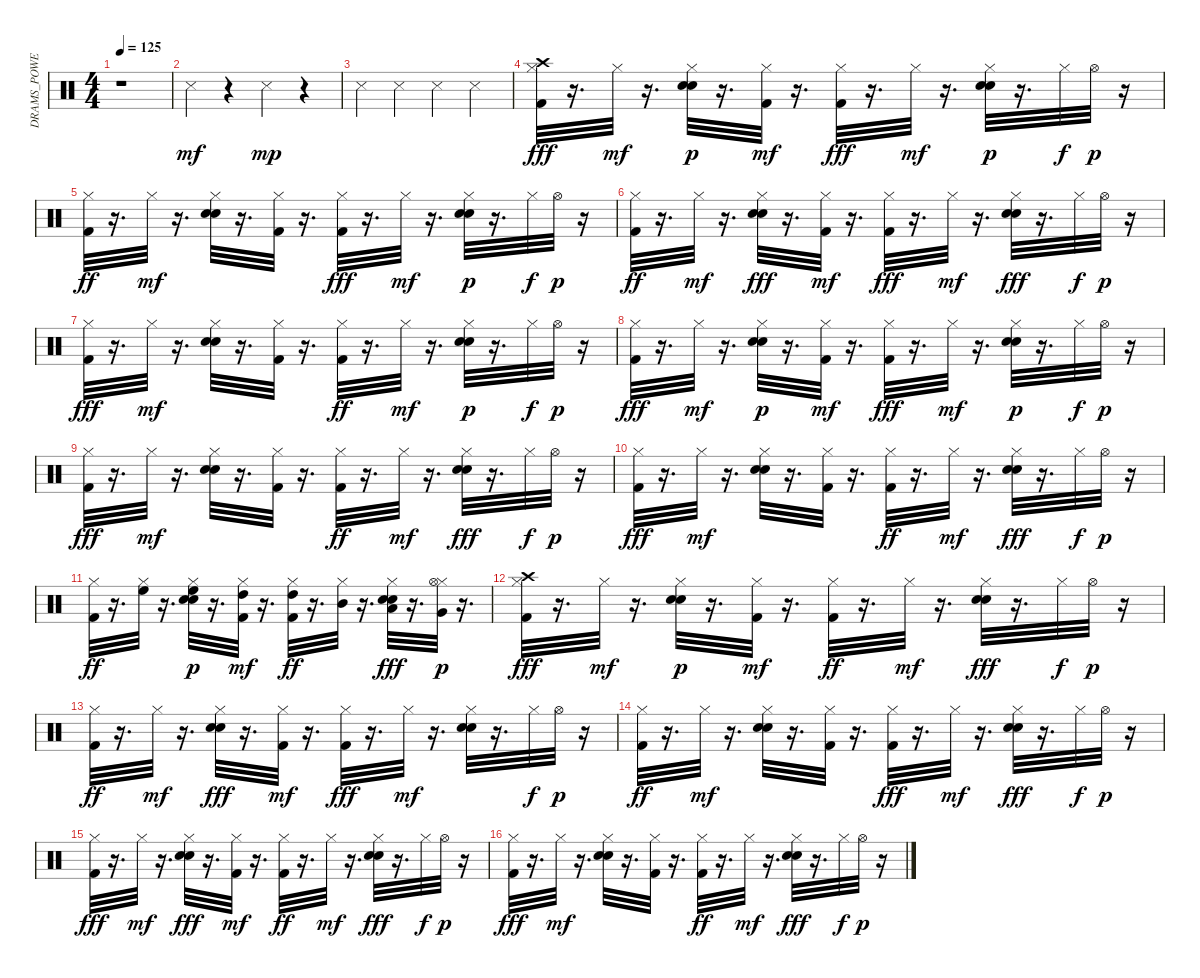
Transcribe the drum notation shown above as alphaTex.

\track ("DRAMS_POWER" "DRAMS_POWE") {instrument percussion}
\staff {score}
\articulation defaults
\ts (4 4)
\tempo 125
\clef neutral
\ks c
r.1{dy mf} |
"Snare (side stick) 3".4 r.4 "Snare (side stick) 3".4{dy mp} r.4 |
"Snare (side stick) 3".4 "Snare (side stick) 3".4 "Snare (side stick) 3".4 "Snare (side stick) 3".4 |
("Crash high (hit)" "Kick (hit) 2" "Hi-Hat (closed)").32{dy fff} r.16{d} "Hi-Hat (closed)".32{dy mf} r.16{d} ("Electric Snare (hit)" "Hi-Hat (closed)" "Snare (hit) 2").32{dy p} r.16{d} ("Hi-Hat (closed)" "Kick (hit) 2").32{dy mf} r.16{d} ("Kick (hit) 2" "Hi-Hat (closed)").32{dy fff} r.16{d} "Hi-Hat (closed)".32{dy mf} r.16{d} ("Electric Snare (hit)" "Hi-Hat (closed)" "Snare (hit) 2").32{dy p} r.16{d} "Hi-Hat (closed)".32{dy f} "Hi-Hat (open)".32{dy p} r.16 |
("Hi-Hat (closed)" "Kick (hit) 2").32{dy ff} r.16{d} "Hi-Hat (closed)".32{dy mf} r.16{d} ("Snare (hit) 2" "Electric Snare (hit)" "Hi-Hat (closed)").32 r.16{d} ("Hi-Hat (closed)" "Kick (hit) 2").32 r.16{d} ("Kick (hit) 2" "Hi-Hat (closed)").32{dy fff} r.16{d} "Hi-Hat (closed)".32{dy mf} r.16{d} ("Hi-Hat (closed)" "Electric Snare (hit)" "Snare (hit) 2").32{dy p} r.16{d} "Hi-Hat (closed)".32{dy f} "Hi-Hat (open)".32{dy p} r.16 |
("Hi-Hat (closed)" "Kick (hit) 2").32{dy ff} r.16{d} "Hi-Hat (closed)".32{dy mf} r.16{d} ("Hi-Hat (closed)" "Snare (hit) 2" "Electric Snare (hit)").32{dy fff} r.16{d} ("Kick (hit) 2" "Hi-Hat (closed)").32{dy mf} r.16{d} ("Kick (hit) 2" "Hi-Hat (closed)").32{dy fff} r.16{d} "Hi-Hat (closed)".32{dy mf} r.16{d} ("Snare (hit) 2" "Hi-Hat (closed)" "Electric Snare (hit)").32{dy fff} r.16{d} "Hi-Hat (closed)".32{dy f} "Hi-Hat (open)".32{dy p} r.16 |
("Kick (hit) 2" "Hi-Hat (closed)").32{dy fff} r.16{d} "Hi-Hat (closed)".32{dy mf} r.16{d} ("Snare (hit) 2" "Electric Snare (hit)" "Hi-Hat (closed)").32 r.16{d} ("Hi-Hat (closed)" "Kick (hit) 2").32 r.16{d} ("Hi-Hat (closed)" "Kick (hit) 2").32{dy ff} r.16{d} "Hi-Hat (closed)".32{dy mf} r.16{d} ("Hi-Hat (closed)" "Electric Snare (hit)" "Snare (hit) 2").32{dy p} r.16{d} "Hi-Hat (closed)".32{dy f} "Hi-Hat (open)".32{dy p} r.16 |
("Kick (hit) 2" "Hi-Hat (closed)").32{dy fff} r.16{d} "Hi-Hat (closed)".32{dy mf} r.16{d} ("Electric Snare (hit)" "Hi-Hat (closed)" "Snare (hit) 2").32{dy p} r.16{d} ("Hi-Hat (closed)" "Kick (hit) 2").32{dy mf} r.16{d} ("Kick (hit) 2" "Hi-Hat (closed)").32{dy fff} r.16{d} "Hi-Hat (closed)".32{dy mf} r.16{d} ("Electric Snare (hit)" "Hi-Hat (closed)" "Snare (hit) 2").32{dy p} r.16{d} "Hi-Hat (closed)".32{dy f} "Hi-Hat (open)".32{dy p} r.16 |
("Kick (hit) 2" "Hi-Hat (closed)").32{dy fff} r.16{d} "Hi-Hat (closed)".32{dy mf} r.16{d} ("Snare (hit) 2" "Electric Snare (hit)" "Hi-Hat (closed)").32 r.16{d} ("Kick (hit) 2" "Hi-Hat (closed)").32 r.16{d} ("Hi-Hat (closed)" "Kick (hit) 2").32{dy ff} r.16{d} "Hi-Hat (closed)".32{dy mf} r.16{d} ("Hi-Hat (closed)" "Snare (hit) 2" "Electric Snare (hit)").32{dy fff} r.16{d} "Hi-Hat (closed)".32{dy f} "Hi-Hat (open)".32{dy p} r.16 |
("Kick (hit) 2" "Hi-Hat (closed)").32{dy fff} r.16{d} "Hi-Hat (closed)".32{dy mf} r.16{d} ("Electric Snare (hit)" "Snare (hit) 2" "Hi-Hat (closed)").32 r.16{d} ("Kick (hit) 2" "Hi-Hat (closed)").32 r.16{d} ("Hi-Hat (closed)" "Kick (hit) 2").32{dy ff} r.16{d} "Hi-Hat (closed)".32{dy mf} r.16{d} ("Hi-Hat (closed)" "Snare (hit) 2" "Electric Snare (hit)").32{dy fff} r.16{d} "Hi-Hat (closed)".32{dy f} "Hi-Hat (open)".32{dy p} r.16 |
("Hi-Hat (closed)" "Kick (hit) 2").32{dy ff} r.16{d} ("Hi-Hat (closed)" "High Floor Tom (hit)").32 r.16{d} ("High Floor Tom (hit)" "Electric Snare (hit)" "Hi-Hat (closed)" "Snare (hit) 2").32{dy p} r.16{d} ("High Tom (hit)" "Hi-Hat (closed)" "Kick (hit) 2").32{dy mf} r.16{d} ("Hi-Hat (closed)" "Kick (hit) 2" "High Tom (hit)").32{dy ff} r.16{d} ("Hi-Hat (closed)" "Mid Tom (hit)").32 r.16{d} ("Low Tom (hit)" "Snare (hit) 2" "Hi-Hat (closed)" "Electric Snare (hit)").32{dy fff} r.16{d} ("Hi-Hat (closed)" "Very Low Tom (hit)" "Hi-Hat (open)").32{dy p} r.16{d} |
("Crash high (hit)" "Kick (hit) 2" "Hi-Hat (closed)").32{dy fff} r.16{d} "Hi-Hat (closed)".32{dy mf} r.16{d} ("Electric Snare (hit)" "Hi-Hat (closed)" "Snare (hit) 2").32{dy p} r.16{d} ("Kick (hit) 2" "Hi-Hat (closed)").32{dy mf} r.16{d} ("Hi-Hat (closed)" "Kick (hit) 2").32{dy ff} r.16{d} "Hi-Hat (closed)".32{dy mf} r.16{d} ("Snare (hit) 2" "Hi-Hat (closed)" "Electric Snare (hit)").32{dy fff} r.16{d} "Hi-Hat (closed)".32{dy f} "Hi-Hat (open)".32{dy p} r.16 |
("Hi-Hat (closed)" "Kick (hit) 2").32{dy ff} r.16{d} "Hi-Hat (closed)".32{dy mf} r.16{d} ("Snare (hit) 2" "Hi-Hat (closed)" "Electric Snare (hit)").32{dy fff} r.16{d} ("Hi-Hat (closed)" "Kick (hit) 2").32{dy mf} r.16{d} ("Kick (hit) 2" "Hi-Hat (closed)").32{dy fff} r.16{d} "Hi-Hat (closed)".32{dy mf} r.16{d} ("Snare (hit) 2" "Electric Snare (hit)" "Hi-Hat (closed)").32 r.16{d} "Hi-Hat (closed)".32{dy f} "Hi-Hat (open)".32{dy p} r.16 |
("Hi-Hat (closed)" "Kick (hit) 2").32{dy ff} r.16{d} "Hi-Hat (closed)".32{dy mf} r.16{d} ("Snare (hit) 2" "Electric Snare (hit)" "Hi-Hat (closed)").32 r.16{d} ("Hi-Hat (closed)" "Kick (hit) 2").32 r.16{d} ("Kick (hit) 2" "Hi-Hat (closed)").32{dy fff} r.16{d} "Hi-Hat (closed)".32{dy mf} r.16{d} ("Snare (hit) 2" "Hi-Hat (closed)" "Electric Snare (hit)").32{dy fff} r.16{d} "Hi-Hat (closed)".32{dy f} "Hi-Hat (open)".32{dy p} r.16 |
("Kick (hit) 2" "Hi-Hat (closed)").32{dy fff} r.16{d} "Hi-Hat (closed)".32{dy mf} r.16{d} ("Hi-Hat (closed)" "Snare (hit) 2" "Electric Snare (hit)").32{dy fff} r.16{d} ("Kick (hit) 2" "Hi-Hat (closed)").32{dy mf} r.16{d} ("Hi-Hat (closed)" "Kick (hit) 2").32{dy ff} r.16{d} "Hi-Hat (closed)".32{dy mf} r.16{d} ("Hi-Hat (closed)" "Snare (hit) 2" "Electric Snare (hit)").32{dy fff} r.16{d} "Hi-Hat (closed)".32{dy f} "Hi-Hat (open)".32{dy p} r.16 |
("Kick (hit) 2" "Hi-Hat (closed)").32{dy fff} r.16{d} "Hi-Hat (closed)".32{dy mf} r.16{d} ("Electric Snare (hit)" "Snare (hit) 2" "Hi-Hat (closed)").32 r.16{d} ("Kick (hit) 2" "Hi-Hat (closed)").32 r.16{d} ("Hi-Hat (closed)" "Kick (hit) 2").32{dy ff} r.16{d} "Hi-Hat (closed)".32{dy mf} r.16{d} ("Hi-Hat (closed)" "Snare (hit) 2" "Electric Snare (hit)").32{dy fff} r.16{d} "Hi-Hat (closed)".32{dy f} "Hi-Hat (open)".32{dy p} r.16
